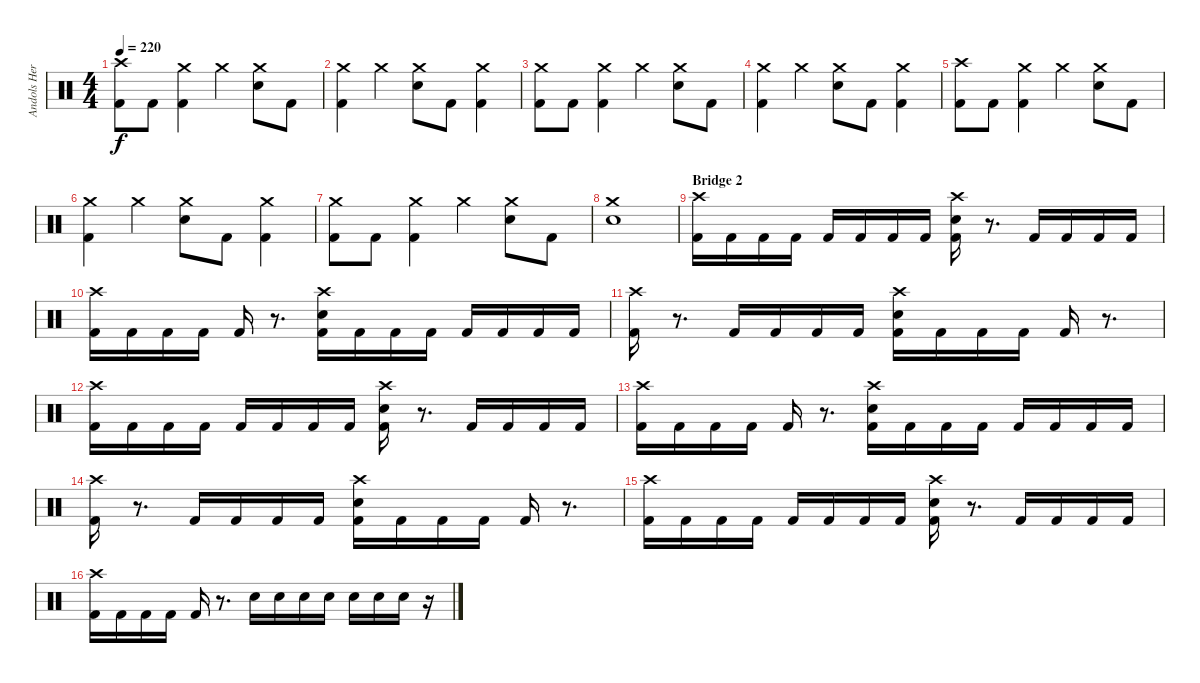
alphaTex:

\track ("Andols Herrick - Drums" "Andols Her") {instrument percussion}
\staff {score}
\articulation defaults
\ts (4 4)
\tempo 220
\clef neutral
\ks c
("Crash high (hit)" "Kick (hit) 2").8{dy f} "Kick (hit) 2".8 ("Crash medium (hit)" "Kick (hit) 2").4 "Crash medium (hit)".4 ("Crash medium (hit)" "Snare (hit) 2").8 "Kick (hit) 2".8 |
("Crash medium (hit)" "Kick (hit) 2").4 "Crash medium (hit)".4 ("Crash medium (hit)" "Snare (hit) 2").8 "Kick (hit) 2".8 ("Crash medium (hit)" "Kick (hit) 2").4 |
("Crash medium (hit)" "Kick (hit) 2").8 "Kick (hit) 2".8 ("Crash medium (hit)" "Kick (hit) 2").4 "Crash medium (hit)".4 ("Crash medium (hit)" "Snare (hit) 2").8 "Kick (hit) 2".8 |
("Crash medium (hit)" "Kick (hit) 2").4 "Crash medium (hit)".4 ("Crash medium (hit)" "Snare (hit) 2").8 "Kick (hit) 2".8 ("Crash medium (hit)" "Kick (hit) 2").4 |
("Crash high (hit)" "Kick (hit) 2").8 "Kick (hit) 2".8 ("Crash medium (hit)" "Kick (hit) 2").4 "Crash medium (hit)".4 ("Crash medium (hit)" "Snare (hit) 2").8 "Kick (hit) 2".8 |
("Crash medium (hit)" "Kick (hit) 2").4 "Crash medium (hit)".4 ("Crash medium (hit)" "Snare (hit) 2").8 "Kick (hit) 2".8 ("Crash medium (hit)" "Kick (hit) 2").4 |
("Crash medium (hit)" "Kick (hit) 2").8 "Kick (hit) 2".8 ("Crash medium (hit)" "Kick (hit) 2").4 "Crash medium (hit)".4 ("Crash medium (hit)" "Snare (hit) 2").8 "Kick (hit) 2".8 |
("Crash medium (hit)" "Snare (hit) 2").1 |
\section ("" "Bridge 2")
("Crash high (hit)" "Kick (hit) 2").16 "Kick (hit) 2".16 "Kick (hit) 2".16 "Kick (hit) 2".16 "Kick (hit) 2".16 "Kick (hit) 2".16 "Kick (hit) 2".16 "Kick (hit) 2".16 ("Crash high (hit)" "Snare (hit) 2" "Kick (hit) 2").16 r.8{d} "Kick (hit) 2".16 "Kick (hit) 2".16 "Kick (hit) 2".16 "Kick (hit) 2".16 |
("Crash high (hit)" "Kick (hit) 2").16 "Kick (hit) 2".16 "Kick (hit) 2".16 "Kick (hit) 2".16 "Kick (hit) 2".16 r.8{d} ("Crash high (hit)" "Snare (hit) 2" "Kick (hit) 2").16 "Kick (hit) 2".16 "Kick (hit) 2".16 "Kick (hit) 2".16 "Kick (hit) 2".16 "Kick (hit) 2".16 "Kick (hit) 2".16 "Kick (hit) 2".16 |
("Crash high (hit)" "Kick (hit) 2").16 r.8{d} "Kick (hit) 2".16 "Kick (hit) 2".16 "Kick (hit) 2".16 "Kick (hit) 2".16 ("Crash high (hit)" "Snare (hit) 2" "Kick (hit) 2").16 "Kick (hit) 2".16 "Kick (hit) 2".16 "Kick (hit) 2".16 "Kick (hit) 2".16 r.8{d} |
("Crash high (hit)" "Kick (hit) 2").16 "Kick (hit) 2".16 "Kick (hit) 2".16 "Kick (hit) 2".16 "Kick (hit) 2".16 "Kick (hit) 2".16 "Kick (hit) 2".16 "Kick (hit) 2".16 ("Crash high (hit)" "Snare (hit) 2" "Kick (hit) 2").16 r.8{d} "Kick (hit) 2".16 "Kick (hit) 2".16 "Kick (hit) 2".16 "Kick (hit) 2".16 |
("Crash high (hit)" "Kick (hit) 2").16 "Kick (hit) 2".16 "Kick (hit) 2".16 "Kick (hit) 2".16 "Kick (hit) 2".16 r.8{d} ("Crash high (hit)" "Snare (hit) 2" "Kick (hit) 2").16 "Kick (hit) 2".16 "Kick (hit) 2".16 "Kick (hit) 2".16 "Kick (hit) 2".16 "Kick (hit) 2".16 "Kick (hit) 2".16 "Kick (hit) 2".16 |
("Crash high (hit)" "Kick (hit) 2").16 r.8{d} "Kick (hit) 2".16 "Kick (hit) 2".16 "Kick (hit) 2".16 "Kick (hit) 2".16 ("Crash high (hit)" "Snare (hit) 2" "Kick (hit) 2").16 "Kick (hit) 2".16 "Kick (hit) 2".16 "Kick (hit) 2".16 "Kick (hit) 2".16 r.8{d} |
("Crash high (hit)" "Kick (hit) 2").16 "Kick (hit) 2".16 "Kick (hit) 2".16 "Kick (hit) 2".16 "Kick (hit) 2".16 "Kick (hit) 2".16 "Kick (hit) 2".16 "Kick (hit) 2".16 ("Crash high (hit)" "Snare (hit) 2" "Kick (hit) 2").16 r.8{d} "Kick (hit) 2".16 "Kick (hit) 2".16 "Kick (hit) 2".16 "Kick (hit) 2".16 |
("Crash high (hit)" "Kick (hit) 2").16 "Kick (hit) 2".16 "Kick (hit) 2".16 "Kick (hit) 2".16 "Kick (hit) 2".16 r.8{d} "Snare (hit) 2".16 "Snare (hit) 2".16 "Snare (hit) 2".16 "Snare (hit) 2".16 "Snare (hit) 2".16 "Snare (hit) 2".16 "Snare (hit) 2".16 r.16
